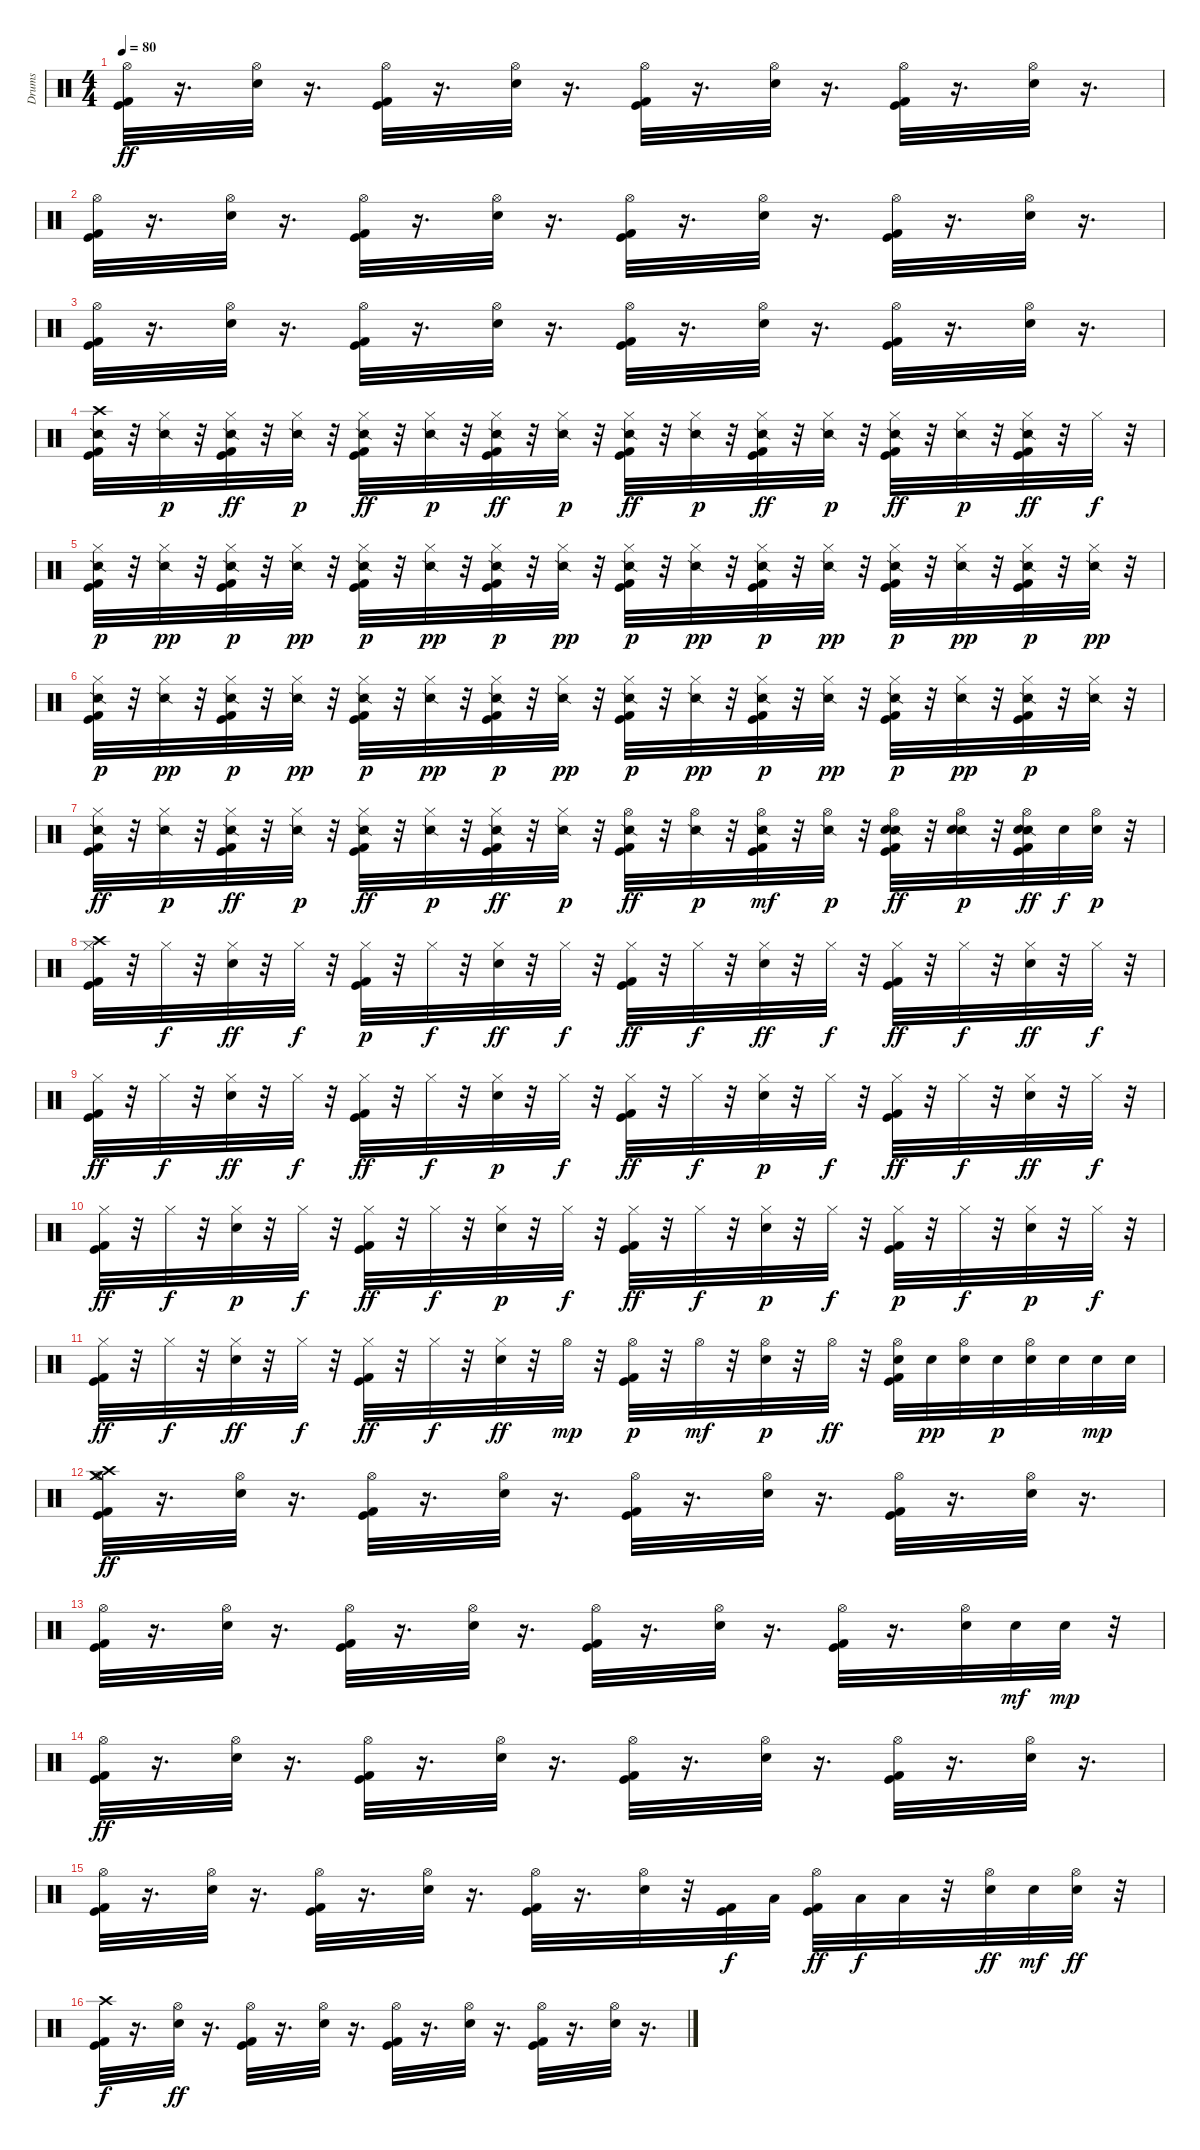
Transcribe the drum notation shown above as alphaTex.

\track ("Drums" "Drums") {instrument percussion}
\staff {score}
\articulation defaults
\ts (4 4)
\tempo 80
\clef neutral
\ks c
("Kick (hit)" "Hi-Hat (open)" "Kick (hit) 2").32{dy ff} r.16{d} ("Hi-Hat (open)" "Electric Snare (hit)").32 r.16{d} ("Hi-Hat (open)" "Kick (hit) 2" "Kick (hit)").32 r.16{d} ("Hi-Hat (open)" "Electric Snare (hit)").32 r.16{d} ("Kick (hit)" "Hi-Hat (open)" "Kick (hit) 2").32 r.16{d} ("Hi-Hat (open)" "Electric Snare (hit)").32 r.16{d} ("Kick (hit) 2" "Kick (hit)" "Hi-Hat (open)").32 r.16{d} ("Hi-Hat (open)" "Electric Snare (hit)").32 r.16{d} |
("Kick (hit)" "Hi-Hat (open)" "Kick (hit) 2").32 r.16{d} ("Hi-Hat (open)" "Electric Snare (hit)").32 r.16{d} ("Hi-Hat (open)" "Kick (hit) 2" "Kick (hit)").32 r.16{d} ("Hi-Hat (open)" "Electric Snare (hit)").32 r.16{d} ("Kick (hit)" "Hi-Hat (open)" "Kick (hit) 2").32 r.16{d} ("Hi-Hat (open)" "Electric Snare (hit)").32 r.16{d} ("Kick (hit) 2" "Kick (hit)" "Hi-Hat (open)").32 r.16{d} ("Hi-Hat (open)" "Electric Snare (hit)").32 r.16{d} |
("Kick (hit)" "Hi-Hat (open)" "Kick (hit) 2").32 r.16{d} ("Hi-Hat (open)" "Electric Snare (hit)").32 r.16{d} ("Hi-Hat (open)" "Kick (hit) 2" "Kick (hit)").32 r.16{d} ("Hi-Hat (open)" "Electric Snare (hit)").32 r.16{d} ("Kick (hit)" "Hi-Hat (open)" "Kick (hit) 2").32 r.16{d} ("Hi-Hat (open)" "Electric Snare (hit)").32 r.16{d} ("Kick (hit) 2" "Kick (hit)" "Hi-Hat (open)").32 r.16{d} ("Hi-Hat (open)" "Electric Snare (hit)").32 r.16{d} |
("Snare (side stick) 2" "Crash high (hit)" "Kick (hit)" "Kick (hit) 2").32 r.32 ("Snare (side stick) 2" "Hi-Hat (closed)").32{dy p} r.32 ("Snare (side stick) 2" "Kick (hit)" "Kick (hit) 2" "Hi-Hat (closed)").32{dy ff} r.32 ("Snare (side stick) 2" "Hi-Hat (closed)").32{dy p} r.32 ("Snare (side stick) 2" "Kick (hit)" "Hi-Hat (closed)" "Kick (hit) 2").32{dy ff} r.32 ("Snare (side stick) 2" "Hi-Hat (closed)").32{dy p} r.32 ("Snare (side stick) 2" "Kick (hit) 2" "Kick (hit)" "Hi-Hat (closed)").32{dy ff} r.32 ("Snare (side stick) 2" "Hi-Hat (closed)").32{dy p} r.32 ("Snare (side stick) 2" "Kick (hit)" "Hi-Hat (closed)" "Kick (hit) 2").32{dy ff} r.32 ("Snare (side stick) 2" "Hi-Hat (closed)").32{dy p} r.32 ("Snare (side stick) 2" "Kick (hit)" "Kick (hit) 2" "Hi-Hat (closed)").32{dy ff} r.32 ("Snare (side stick) 2" "Hi-Hat (closed)").32{dy p} r.32 ("Snare (side stick) 2" "Kick (hit) 2" "Hi-Hat (closed)" "Kick (hit)").32{dy ff} r.32 ("Snare (side stick) 2" "Hi-Hat (closed)").32{dy p} r.32 ("Snare (side stick) 2" "Kick (hit) 2" "Kick (hit)" "Hi-Hat (closed)").32{dy ff} r.32 "Hi-Hat (closed)".32{dy f} r.32 |
("Hi-Hat (closed)" "Kick (hit)" "Kick (hit) 2" "Snare (side stick) 2").32{dy p} r.32 ("Hi-Hat (closed)" "Snare (side stick) 2").32{dy pp} r.32 ("Hi-Hat (closed)" "Kick (hit)" "Kick (hit) 2" "Snare (side stick) 2").32{dy p} r.32 ("Hi-Hat (closed)" "Snare (side stick) 2").32{dy pp} r.32 ("Kick (hit)" "Hi-Hat (closed)" "Kick (hit) 2" "Snare (side stick) 2").32{dy p} r.32 ("Hi-Hat (closed)" "Snare (side stick) 2").32{dy pp} r.32 ("Kick (hit) 2" "Kick (hit)" "Hi-Hat (closed)" "Snare (side stick) 2").32{dy p} r.32 ("Hi-Hat (closed)" "Snare (side stick) 2").32{dy pp} r.32 ("Kick (hit)" "Hi-Hat (closed)" "Kick (hit) 2" "Snare (side stick) 2").32{dy p} r.32 ("Hi-Hat (closed)" "Snare (side stick) 2").32{dy pp} r.32 ("Hi-Hat (closed)" "Kick (hit)" "Kick (hit) 2" "Snare (side stick) 2").32{dy p} r.32 ("Hi-Hat (closed)" "Snare (side stick) 2").32{dy pp} r.32 ("Kick (hit)" "Kick (hit) 2" "Hi-Hat (closed)" "Snare (side stick) 2").32{dy p} r.32 ("Hi-Hat (closed)" "Snare (side stick) 2").32{dy pp} r.32 ("Kick (hit) 2" "Hi-Hat (closed)" "Kick (hit)" "Snare (side stick) 2").32{dy p} r.32 ("Snare (side stick) 2" "Hi-Hat (closed)").32{dy pp} r.32 |
("Hi-Hat (closed)" "Kick (hit)" "Kick (hit) 2" "Snare (side stick) 2").32{dy p} r.32 ("Hi-Hat (closed)" "Snare (side stick) 2").32{dy pp} r.32 ("Hi-Hat (closed)" "Kick (hit)" "Kick (hit) 2" "Snare (side stick) 2").32{dy p} r.32 ("Hi-Hat (closed)" "Snare (side stick) 2").32{dy pp} r.32 ("Kick (hit)" "Hi-Hat (closed)" "Kick (hit) 2" "Snare (side stick) 2").32{dy p} r.32 ("Hi-Hat (closed)" "Snare (side stick) 2").32{dy pp} r.32 ("Kick (hit) 2" "Kick (hit)" "Hi-Hat (closed)" "Snare (side stick) 2").32{dy p} r.32 ("Hi-Hat (closed)" "Snare (side stick) 2").32{dy pp} r.32 ("Kick (hit)" "Hi-Hat (closed)" "Kick (hit) 2" "Snare (side stick) 2").32{dy p} r.32 ("Hi-Hat (closed)" "Snare (side stick) 2").32{dy pp} r.32 ("Hi-Hat (closed)" "Kick (hit)" "Kick (hit) 2" "Snare (side stick) 2").32{dy p} r.32 ("Hi-Hat (closed)" "Snare (side stick) 2").32{dy pp} r.32 ("Kick (hit)" "Kick (hit) 2" "Hi-Hat (closed)" "Snare (side stick) 2").32{dy p} r.32 ("Hi-Hat (closed)" "Snare (side stick) 2").32{dy pp} r.32 ("Kick (hit) 2" "Kick (hit)" "Hi-Hat (closed)" "Snare (side stick) 2").32{dy p} r.32 ("Snare (side stick) 2" "Hi-Hat (closed)").32 r.32 |
("Snare (side stick) 2" "Hi-Hat (closed)" "Kick (hit)" "Kick (hit) 2").32{dy ff} r.32 ("Snare (side stick) 2" "Hi-Hat (closed)").32{dy p} r.32 ("Snare (side stick) 2" "Kick (hit)" "Kick (hit) 2" "Hi-Hat (closed)").32{dy ff} r.32 ("Snare (side stick) 2" "Hi-Hat (closed)").32{dy p} r.32 ("Snare (side stick) 2" "Kick (hit) 2" "Kick (hit)" "Hi-Hat (closed)").32{dy ff} r.32 ("Snare (side stick) 2" "Hi-Hat (closed)").32{dy p} r.32 ("Snare (side stick) 2" "Hi-Hat (closed)" "Kick (hit)" "Kick (hit) 2").32{dy ff} r.32 ("Snare (side stick) 2" "Hi-Hat (closed)").32{dy p} r.32 ("Snare (side stick) 2" "Kick (hit)" "Hi-Hat (open)" "Kick (hit) 2").32{dy ff} r.32 ("Snare (side stick) 2" "Hi-Hat (open)").32{dy p} r.32 ("Snare (side stick) 2" "Kick (hit) 2" "Kick (hit)" "Hi-Hat (open)").32{dy mf} r.32 ("Snare (side stick) 2" "Hi-Hat (open)").32{dy p} r.32 ("Snare (side stick) 2" "Kick (hit) 2" "Kick (hit)" "Snare (hit) 2" "Hi-Hat (open)").32{dy ff} r.32 ("Snare (side stick) 2" "Snare (hit) 2" "Hi-Hat (open)").32{dy p} r.32 ("Snare (side stick) 2" "Hi-Hat (open)" "Snare (hit) 2" "Kick (hit)" "Kick (hit) 2").32{dy ff} "Snare (hit) 2".32{dy f} ("Snare (hit) 2" "Hi-Hat (open)").32{dy p} r.32 |
("Kick (hit) 2" "Kick (hit)" "Crash high (hit)" "Hi-Hat (closed)").32 r.32 "Hi-Hat (closed)".32{dy f} r.32 ("Hi-Hat (closed)" "Snare (hit) 2").32{dy ff} r.32 "Hi-Hat (closed)".32{dy f} r.32 ("Kick (hit) 2" "Kick (hit)" "Hi-Hat (closed)").32{dy p} r.32 "Hi-Hat (closed)".32{dy f} r.32 ("Hi-Hat (closed)" "Snare (hit) 2").32{dy ff} r.32 "Hi-Hat (closed)".32{dy f} r.32 ("Hi-Hat (closed)" "Kick (hit)" "Kick (hit) 2").32{dy ff} r.32 "Hi-Hat (closed)".32{dy f} r.32 ("Hi-Hat (closed)" "Snare (hit) 2").32{dy ff} r.32 "Hi-Hat (closed)".32{dy f} r.32 ("Kick (hit)" "Hi-Hat (closed)" "Kick (hit) 2").32{dy ff} r.32 "Hi-Hat (closed)".32{dy f} r.32 ("Snare (hit) 2" "Hi-Hat (closed)").32{dy ff} r.32 "Hi-Hat (closed)".32{dy f} r.32 |
("Kick (hit) 2" "Hi-Hat (closed)" "Kick (hit)").32{dy ff} r.32 "Hi-Hat (closed)".32{dy f} r.32 ("Hi-Hat (closed)" "Snare (hit) 2").32{dy ff} r.32 "Hi-Hat (closed)".32{dy f} r.32 ("Kick (hit)" "Hi-Hat (closed)" "Kick (hit) 2").32{dy ff} r.32 "Hi-Hat (closed)".32{dy f} r.32 ("Snare (hit) 2" "Hi-Hat (closed)").32{dy p} r.32 "Hi-Hat (closed)".32{dy f} r.32 ("Hi-Hat (closed)" "Kick (hit) 2" "Kick (hit)").32{dy ff} r.32 "Hi-Hat (closed)".32{dy f} r.32 ("Snare (hit) 2" "Hi-Hat (closed)").32{dy p} r.32 "Hi-Hat (closed)".32{dy f} r.32 ("Kick (hit)" "Hi-Hat (closed)" "Kick (hit) 2").32{dy ff} r.32 "Hi-Hat (closed)".32{dy f} r.32 ("Hi-Hat (closed)" "Snare (hit) 2").32{dy ff} r.32 "Hi-Hat (closed)".32{dy f} r.32 |
("Kick (hit) 2" "Hi-Hat (closed)" "Kick (hit)").32{dy ff} r.32 "Hi-Hat (closed)".32{dy f} r.32 ("Snare (hit) 2" "Hi-Hat (closed)").32{dy p} r.32 "Hi-Hat (closed)".32{dy f} r.32 ("Hi-Hat (closed)" "Kick (hit) 2" "Kick (hit)").32{dy ff} r.32 "Hi-Hat (closed)".32{dy f} r.32 ("Snare (hit) 2" "Hi-Hat (closed)").32{dy p} r.32 "Hi-Hat (closed)".32{dy f} r.32 ("Kick (hit) 2" "Hi-Hat (closed)" "Kick (hit)").32{dy ff} r.32 "Hi-Hat (closed)".32{dy f} r.32 ("Snare (hit) 2" "Hi-Hat (closed)").32{dy p} r.32 "Hi-Hat (closed)".32{dy f} r.32 ("Kick (hit) 2" "Kick (hit)" "Hi-Hat (closed)").32{dy p} r.32 "Hi-Hat (closed)".32{dy f} r.32 ("Snare (hit) 2" "Hi-Hat (closed)").32{dy p} r.32 "Hi-Hat (closed)".32{dy f} r.32 |
("Kick (hit)" "Hi-Hat (closed)" "Kick (hit) 2").32{dy ff} r.32 "Hi-Hat (closed)".32{dy f} r.32 ("Hi-Hat (closed)" "Snare (hit) 2").32{dy ff} r.32 "Hi-Hat (closed)".32{dy f} r.32 ("Kick (hit)" "Hi-Hat (closed)" "Kick (hit) 2").32{dy ff} r.32 "Hi-Hat (closed)".32{dy f} r.32 ("Hi-Hat (closed)" "Snare (hit) 2").32{dy ff} r.32 "Hi-Hat (open)".32{dy mp} r.32 ("Kick (hit) 2" "Kick (hit)" "Hi-Hat (open)").32{dy p} r.32 "Hi-Hat (open)".32{dy mf} r.32 ("Snare (hit) 2" "Hi-Hat (open)").32{dy p} r.32 "Hi-Hat (open)".32{dy ff} r.32 ("Hi-Hat (open)" "Kick (hit)" "Snare (hit) 2" "Kick (hit) 2").32 "Snare (hit) 2".32{dy pp} ("Hi-Hat (open)" "Snare (hit) 2").32 "Snare (hit) 2".32{dy p} ("Snare (hit) 2" "Hi-Hat (open)").32 "Snare (hit) 2".32 "Snare (hit) 2".32{dy mp} "Snare (hit) 2".32 |
("Crash medium (hit)" "Kick (hit)" "Crash high (hit)" "Hi-Hat (open)" "Kick (hit) 2").32{dy ff} r.16{d} ("Hi-Hat (open)" "Electric Snare (hit)").32 r.16{d} ("Kick (hit)" "Kick (hit) 2" "Hi-Hat (open)").32 r.16{d} ("Hi-Hat (open)" "Electric Snare (hit)").32 r.16{d} ("Kick (hit)" "Hi-Hat (open)" "Kick (hit) 2").32 r.16{d} ("Hi-Hat (open)" "Electric Snare (hit)").32 r.16{d} ("Kick (hit) 2" "Kick (hit)" "Hi-Hat (open)").32 r.16{d} ("Hi-Hat (open)" "Electric Snare (hit)").32 r.16{d} |
("Kick (hit)" "Hi-Hat (open)" "Kick (hit) 2").32 r.16{d} ("Hi-Hat (open)" "Electric Snare (hit)").32 r.16{d} ("Hi-Hat (open)" "Kick (hit) 2" "Kick (hit)").32 r.16{d} ("Hi-Hat (open)" "Electric Snare (hit)").32 r.16{d} ("Kick (hit)" "Hi-Hat (open)" "Kick (hit) 2").32 r.16{d} ("Hi-Hat (open)" "Electric Snare (hit)").32 r.16{d} ("Kick (hit) 2" "Kick (hit)" "Hi-Hat (open)").32 r.16{d} ("Hi-Hat (open)" "Electric Snare (hit)").32 "Electric Snare (hit)".32{dy mf} "Electric Snare (hit)".32{dy mp} r.32 |
("Kick (hit)" "Hi-Hat (open)" "Kick (hit) 2").32{dy ff} r.16{d} ("Hi-Hat (open)" "Electric Snare (hit)").32 r.16{d} ("Hi-Hat (open)" "Kick (hit) 2" "Kick (hit)").32 r.16{d} ("Hi-Hat (open)" "Electric Snare (hit)").32 r.16{d} ("Kick (hit)" "Hi-Hat (open)" "Kick (hit) 2").32 r.16{d} ("Hi-Hat (open)" "Electric Snare (hit)").32 r.16{d} ("Kick (hit) 2" "Kick (hit)" "Hi-Hat (open)").32 r.16{d} ("Hi-Hat (open)" "Electric Snare (hit)").32 r.16{d} |
("Kick (hit)" "Hi-Hat (open)" "Kick (hit) 2").32 r.16{d} ("Hi-Hat (open)" "Electric Snare (hit)").32 r.16{d} ("Kick (hit)" "Hi-Hat (open)" "Kick (hit) 2").32 r.16{d} ("Hi-Hat (open)" "Electric Snare (hit)").32 r.16{d} ("Hi-Hat (open)" "Kick (hit)" "Kick (hit) 2").32 r.16{d} ("Hi-Hat (open)" "Electric Snare (hit)").32 r.32 ("Kick (hit)" "Kick (hit) 2").32{dy f} "Low Tom (hit)".32 ("Hi-Hat (open)" "Kick (hit)" "Kick (hit) 2").32{dy ff} "Low Tom (hit)".32{dy f} "Low Tom (hit)".32 r.32 ("Hi-Hat (open)" "Electric Snare (hit)").32{dy ff} "Electric Snare (hit)".32{dy mf} ("Electric Snare (hit)" "Hi-Hat (open)").32{dy ff} r.32 |
("Kick (hit)" "Crash high (hit)" "Kick (hit) 2").32{dy f} r.16{d} ("Hi-Hat (open)" "Electric Snare (hit)").32{dy ff} r.16{d} ("Hi-Hat (open)" "Kick (hit) 2" "Kick (hit)").32 r.16{d} ("Hi-Hat (open)" "Electric Snare (hit)").32 r.16{d} ("Kick (hit)" "Hi-Hat (open)" "Kick (hit) 2").32 r.16{d} ("Hi-Hat (open)" "Electric Snare (hit)").32 r.16{d} ("Kick (hit) 2" "Kick (hit)" "Hi-Hat (open)").32 r.16{d} ("Hi-Hat (open)" "Electric Snare (hit)").32 r.16{d}
